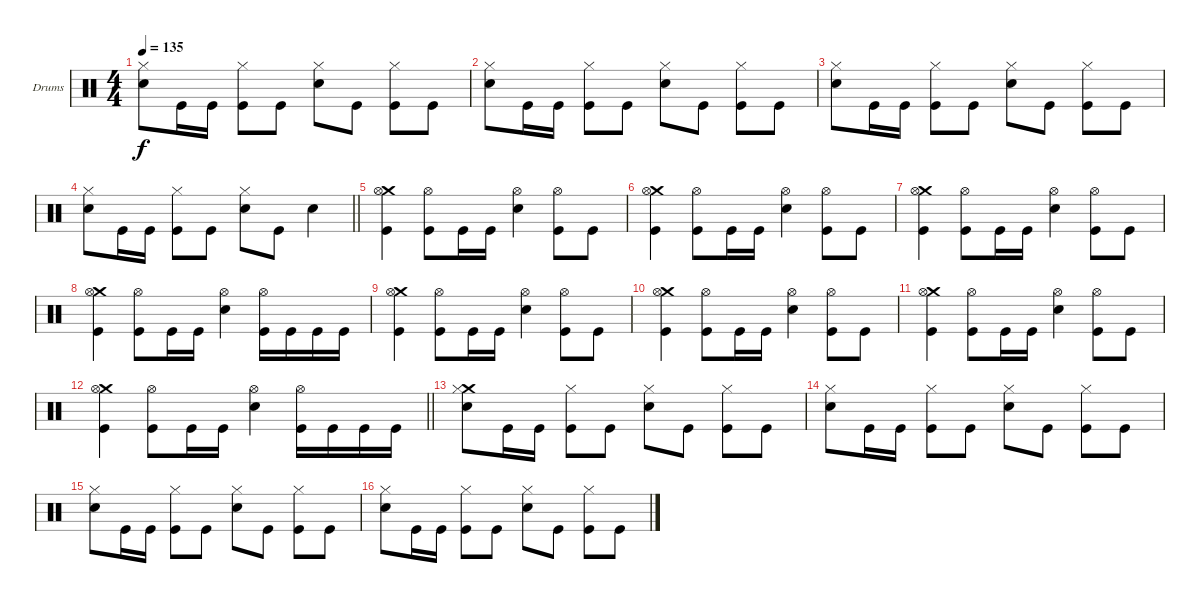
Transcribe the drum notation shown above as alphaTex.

\defaultSystemsLayout 4
\bracketExtendMode groupsimilarinstruments
\firstSystemTrackNameOrientation horizontal
\otherSystemsTrackNameOrientation horizontal
\track ("Drumkit" "Drums") {instrument percussion}
\staff {score}
\articulation defaults
\ts (4 4)
\tempo 135
\clef neutral
\ks c
("Snare (hit) 2" "Hi-Hat (closed)").8{dy f} "Kick (hit)".16 "Kick (hit)".16 ("Kick (hit)" "Hi-Hat (closed)").8 "Kick (hit)".8 ("Snare (hit) 2" "Hi-Hat (closed)").8 "Kick (hit)".8 ("Kick (hit)" "Hi-Hat (closed)").8 "Kick (hit)".8 |
("Snare (hit) 2" "Hi-Hat (closed)").8 "Kick (hit)".16 "Kick (hit)".16 ("Kick (hit)" "Hi-Hat (closed)").8 "Kick (hit)".8 ("Snare (hit) 2" "Hi-Hat (closed)").8 "Kick (hit)".8 ("Kick (hit)" "Hi-Hat (closed)").8 "Kick (hit)".8 |
("Snare (hit) 2" "Hi-Hat (closed)").8 "Kick (hit)".16 "Kick (hit)".16 ("Kick (hit)" "Hi-Hat (closed)").8 "Kick (hit)".8 ("Snare (hit) 2" "Hi-Hat (closed)").8 "Kick (hit)".8 ("Kick (hit)" "Hi-Hat (closed)").8 "Kick (hit)".8 |
\barLineRight lightlight
("Snare (hit) 2" "Hi-Hat (closed)").8 "Kick (hit)".16 "Kick (hit)".16 ("Kick (hit)" "Hi-Hat (closed)").8 "Kick (hit)".8 ("Snare (hit) 2" "Hi-Hat (closed)").8 "Kick (hit)".8 "Snare (hit) 2".4 |
("Kick (hit)" "Crash medium (hit)" "Hi-Hat (open)").4 ("Kick (hit)" "Hi-Hat (open)").8 "Kick (hit)".16 "Kick (hit)".16 ("Snare (hit) 2" "Hi-Hat (open)").4 ("Kick (hit)" "Hi-Hat (open)").8 "Kick (hit)".8 |
("Kick (hit)" "Crash medium (hit)" "Hi-Hat (open)").4 ("Kick (hit)" "Hi-Hat (open)").8 "Kick (hit)".16 "Kick (hit)".16 ("Snare (hit) 2" "Hi-Hat (open)").4 ("Kick (hit)" "Hi-Hat (open)").8 "Kick (hit)".8 |
("Kick (hit)" "Crash medium (hit)" "Hi-Hat (open)").4 ("Kick (hit)" "Hi-Hat (open)").8 "Kick (hit)".16 "Kick (hit)".16 ("Snare (hit) 2" "Hi-Hat (open)").4 ("Kick (hit)" "Hi-Hat (open)").8 "Kick (hit)".8 |
("Kick (hit)" "Crash medium (hit)" "Hi-Hat (open)").4 ("Kick (hit)" "Hi-Hat (open)").8 "Kick (hit)".16 "Kick (hit)".16 ("Snare (hit) 2" "Hi-Hat (open)").4 ("Kick (hit)" "Hi-Hat (open)").16 "Kick (hit)".16 "Kick (hit)".16 "Kick (hit)".16 |
("Kick (hit)" "Crash medium (hit)" "Hi-Hat (open)").4 ("Kick (hit)" "Hi-Hat (open)").8 "Kick (hit)".16 "Kick (hit)".16 ("Snare (hit) 2" "Hi-Hat (open)").4 ("Kick (hit)" "Hi-Hat (open)").8 "Kick (hit)".8 |
("Kick (hit)" "Crash medium (hit)" "Hi-Hat (open)").4 ("Kick (hit)" "Hi-Hat (open)").8 "Kick (hit)".16 "Kick (hit)".16 ("Snare (hit) 2" "Hi-Hat (open)").4 ("Kick (hit)" "Hi-Hat (open)").8 "Kick (hit)".8 |
("Kick (hit)" "Crash medium (hit)" "Hi-Hat (open)").4 ("Kick (hit)" "Hi-Hat (open)").8 "Kick (hit)".16 "Kick (hit)".16 ("Snare (hit) 2" "Hi-Hat (open)").4 ("Kick (hit)" "Hi-Hat (open)").8 "Kick (hit)".8 |
\barLineRight lightlight
("Kick (hit)" "Crash medium (hit)" "Hi-Hat (open)").4 ("Kick (hit)" "Hi-Hat (open)").8 "Kick (hit)".16 "Kick (hit)".16 ("Snare (hit) 2" "Hi-Hat (open)").4 ("Kick (hit)" "Hi-Hat (open)").16 "Kick (hit)".16 "Kick (hit)".16 "Kick (hit)".16 |
("Snare (hit) 2" "Crash medium (hit)" "Hi-Hat (closed)").8 "Kick (hit)".16 "Kick (hit)".16 ("Kick (hit)" "Hi-Hat (closed)").8 "Kick (hit)".8 ("Snare (hit) 2" "Hi-Hat (closed)").8 "Kick (hit)".8 ("Kick (hit)" "Hi-Hat (closed)").8 "Kick (hit)".8 |
("Snare (hit) 2" "Hi-Hat (closed)").8 "Kick (hit)".16 "Kick (hit)".16 ("Kick (hit)" "Hi-Hat (closed)").8 "Kick (hit)".8 ("Snare (hit) 2" "Hi-Hat (closed)").8 "Kick (hit)".8 ("Kick (hit)" "Hi-Hat (closed)").8 "Kick (hit)".8 |
("Snare (hit) 2" "Hi-Hat (closed)").8 "Kick (hit)".16 "Kick (hit)".16 ("Kick (hit)" "Hi-Hat (closed)").8 "Kick (hit)".8 ("Snare (hit) 2" "Hi-Hat (closed)").8 "Kick (hit)".8 ("Kick (hit)" "Hi-Hat (closed)").8 "Kick (hit)".8 |
("Snare (hit) 2" "Hi-Hat (closed)").8 "Kick (hit)".16 "Kick (hit)".16 ("Kick (hit)" "Hi-Hat (closed)").8 "Kick (hit)".8 ("Snare (hit) 2" "Hi-Hat (closed)").8 "Kick (hit)".8 ("Kick (hit)" "Hi-Hat (closed)").8 "Kick (hit)".8
